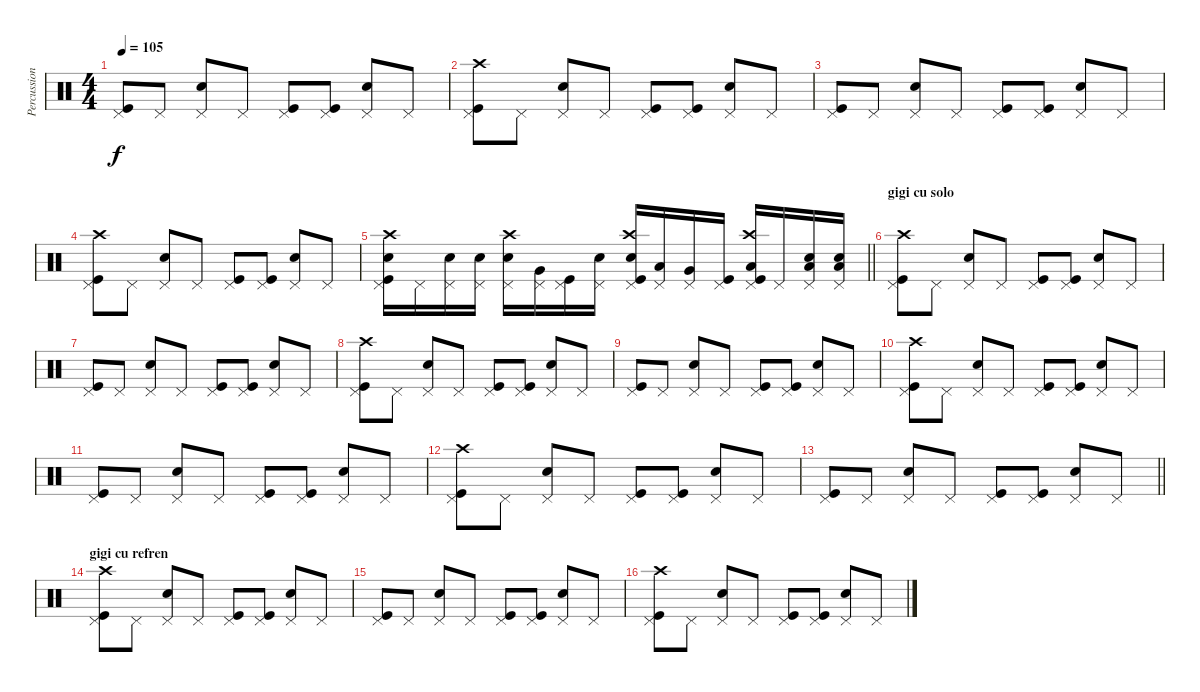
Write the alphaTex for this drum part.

\track ("Percussion" "Percussion") {instrument percussion}
\staff {score}
\articulation defaults
\ts (4 4)
\tempo 105
\clef neutral
\ks c
("Pedal Hi-Hat (hit)" "Kick (hit)").8{dy f} "Pedal Hi-Hat (hit)".8 ("Pedal Hi-Hat (hit)" "Snare (hit) 2").8 "Pedal Hi-Hat (hit)".8 ("Pedal Hi-Hat (hit)" "Kick (hit)").8 ("Pedal Hi-Hat (hit)" "Kick (hit)").8 ("Pedal Hi-Hat (hit)" "Snare (hit) 2").8 "Pedal Hi-Hat (hit)".8 |
("Pedal Hi-Hat (hit)" "Crash high (hit)" "Kick (hit)").8 "Pedal Hi-Hat (hit)".8 ("Pedal Hi-Hat (hit)" "Snare (hit) 2").8 "Pedal Hi-Hat (hit)".8 ("Pedal Hi-Hat (hit)" "Kick (hit)").8 ("Pedal Hi-Hat (hit)" "Kick (hit)").8 ("Pedal Hi-Hat (hit)" "Snare (hit) 2").8 "Pedal Hi-Hat (hit)".8 |
("Pedal Hi-Hat (hit)" "Kick (hit)").8 "Pedal Hi-Hat (hit)".8 ("Pedal Hi-Hat (hit)" "Snare (hit) 2").8 "Pedal Hi-Hat (hit)".8 ("Pedal Hi-Hat (hit)" "Kick (hit)").8 ("Pedal Hi-Hat (hit)" "Kick (hit)").8 ("Pedal Hi-Hat (hit)" "Snare (hit) 2").8 "Pedal Hi-Hat (hit)".8 |
("Pedal Hi-Hat (hit)" "Crash high (hit)" "Kick (hit)").8 "Pedal Hi-Hat (hit)".8 ("Pedal Hi-Hat (hit)" "Snare (hit) 2").8 "Pedal Hi-Hat (hit)".8 ("Pedal Hi-Hat (hit)" "Kick (hit)").8 ("Pedal Hi-Hat (hit)" "Kick (hit)").8 ("Pedal Hi-Hat (hit)" "Snare (hit) 2").8 "Pedal Hi-Hat (hit)".8 |
\barLineRight lightlight
("Pedal Hi-Hat (hit)" "Crash high (hit)" "Snare (hit) 2" "Kick (hit)").16 "Pedal Hi-Hat (hit)".16 ("Pedal Hi-Hat (hit)" "Snare (hit) 2").16 ("Pedal Hi-Hat (hit)" "Electric Snare (hit)").16 ("Pedal Hi-Hat (hit)" "Crash high (hit)" "Snare (hit) 2").16 ("Pedal Hi-Hat (hit)" "Very Low Tom (hit)").16 ("Pedal Hi-Hat (hit)" "Kick (hit)").16 ("Pedal Hi-Hat (hit)" "Snare (hit) 2").16 ("Pedal Hi-Hat (hit)" "Crash high (hit)" "Electric Snare (hit)" "Kick (hit)").16 ("Pedal Hi-Hat (hit)" "Low Floor Tom (hit)").16 ("Pedal Hi-Hat (hit)" "Very Low Tom (hit)").16 ("Pedal Hi-Hat (hit)" "Kick (hit)").16 ("Pedal Hi-Hat (hit)" "Crash high (hit)" "Low Floor Tom (hit)" "Kick (hit)").16 "Pedal Hi-Hat (hit)".16 ("Pedal Hi-Hat (hit)" "Low Floor Tom (hit)" "Snare (hit) 2").16 ("Pedal Hi-Hat (hit)" "Low Floor Tom (hit)" "Snare (hit) 2").16 |
\section ("" "gigi cu solo")
("Pedal Hi-Hat (hit)" "Crash high (hit)" "Kick (hit)").8 "Pedal Hi-Hat (hit)".8 ("Pedal Hi-Hat (hit)" "Snare (hit) 2").8 "Pedal Hi-Hat (hit)".8 ("Pedal Hi-Hat (hit)" "Kick (hit)").8 ("Pedal Hi-Hat (hit)" "Kick (hit)").8 ("Pedal Hi-Hat (hit)" "Snare (hit) 2").8 "Pedal Hi-Hat (hit)".8 |
("Pedal Hi-Hat (hit)" "Kick (hit)").8 "Pedal Hi-Hat (hit)".8 ("Pedal Hi-Hat (hit)" "Snare (hit) 2").8 "Pedal Hi-Hat (hit)".8 ("Pedal Hi-Hat (hit)" "Kick (hit)").8 ("Pedal Hi-Hat (hit)" "Kick (hit)").8 ("Pedal Hi-Hat (hit)" "Snare (hit) 2").8 "Pedal Hi-Hat (hit)".8 |
("Pedal Hi-Hat (hit)" "Crash high (hit)" "Kick (hit)").8 "Pedal Hi-Hat (hit)".8 ("Pedal Hi-Hat (hit)" "Snare (hit) 2").8 "Pedal Hi-Hat (hit)".8 ("Pedal Hi-Hat (hit)" "Kick (hit)").8 ("Pedal Hi-Hat (hit)" "Kick (hit)").8 ("Pedal Hi-Hat (hit)" "Snare (hit) 2").8 "Pedal Hi-Hat (hit)".8 |
("Pedal Hi-Hat (hit)" "Kick (hit)").8 "Pedal Hi-Hat (hit)".8 ("Pedal Hi-Hat (hit)" "Snare (hit) 2").8 "Pedal Hi-Hat (hit)".8 ("Pedal Hi-Hat (hit)" "Kick (hit)").8 ("Pedal Hi-Hat (hit)" "Kick (hit)").8 ("Pedal Hi-Hat (hit)" "Snare (hit) 2").8 "Pedal Hi-Hat (hit)".8 |
("Pedal Hi-Hat (hit)" "Crash high (hit)" "Kick (hit)").8 "Pedal Hi-Hat (hit)".8 ("Pedal Hi-Hat (hit)" "Snare (hit) 2").8 "Pedal Hi-Hat (hit)".8 ("Pedal Hi-Hat (hit)" "Kick (hit)").8 ("Pedal Hi-Hat (hit)" "Kick (hit)").8 ("Pedal Hi-Hat (hit)" "Snare (hit) 2").8 "Pedal Hi-Hat (hit)".8 |
("Pedal Hi-Hat (hit)" "Kick (hit)").8 "Pedal Hi-Hat (hit)".8 ("Pedal Hi-Hat (hit)" "Snare (hit) 2").8 "Pedal Hi-Hat (hit)".8 ("Pedal Hi-Hat (hit)" "Kick (hit)").8 ("Pedal Hi-Hat (hit)" "Kick (hit)").8 ("Pedal Hi-Hat (hit)" "Snare (hit) 2").8 "Pedal Hi-Hat (hit)".8 |
("Pedal Hi-Hat (hit)" "Crash high (hit)" "Kick (hit)").8 "Pedal Hi-Hat (hit)".8 ("Pedal Hi-Hat (hit)" "Snare (hit) 2").8 "Pedal Hi-Hat (hit)".8 ("Pedal Hi-Hat (hit)" "Kick (hit)").8 ("Pedal Hi-Hat (hit)" "Kick (hit)").8 ("Pedal Hi-Hat (hit)" "Snare (hit) 2").8 "Pedal Hi-Hat (hit)".8 |
\barLineRight lightlight
("Pedal Hi-Hat (hit)" "Kick (hit)").8 "Pedal Hi-Hat (hit)".8 ("Pedal Hi-Hat (hit)" "Snare (hit) 2").8 "Pedal Hi-Hat (hit)".8 ("Pedal Hi-Hat (hit)" "Kick (hit)").8 ("Pedal Hi-Hat (hit)" "Kick (hit)").8 ("Pedal Hi-Hat (hit)" "Snare (hit) 2").8 "Pedal Hi-Hat (hit)".8 |
\section ("" "gigi cu refren")
("Pedal Hi-Hat (hit)" "Crash high (hit)" "Kick (hit)").8 "Pedal Hi-Hat (hit)".8 ("Pedal Hi-Hat (hit)" "Snare (hit) 2").8 "Pedal Hi-Hat (hit)".8 ("Pedal Hi-Hat (hit)" "Kick (hit)").8 ("Pedal Hi-Hat (hit)" "Kick (hit)").8 ("Pedal Hi-Hat (hit)" "Snare (hit) 2").8 "Pedal Hi-Hat (hit)".8 |
("Pedal Hi-Hat (hit)" "Kick (hit)").8 "Pedal Hi-Hat (hit)".8 ("Pedal Hi-Hat (hit)" "Snare (hit) 2").8 "Pedal Hi-Hat (hit)".8 ("Pedal Hi-Hat (hit)" "Kick (hit)").8 ("Pedal Hi-Hat (hit)" "Kick (hit)").8 ("Pedal Hi-Hat (hit)" "Snare (hit) 2").8 "Pedal Hi-Hat (hit)".8 |
("Pedal Hi-Hat (hit)" "Crash high (hit)" "Kick (hit)").8 "Pedal Hi-Hat (hit)".8 ("Pedal Hi-Hat (hit)" "Snare (hit) 2").8 "Pedal Hi-Hat (hit)".8 ("Pedal Hi-Hat (hit)" "Kick (hit)").8 ("Pedal Hi-Hat (hit)" "Kick (hit)").8 ("Pedal Hi-Hat (hit)" "Snare (hit) 2").8 "Pedal Hi-Hat (hit)".8
